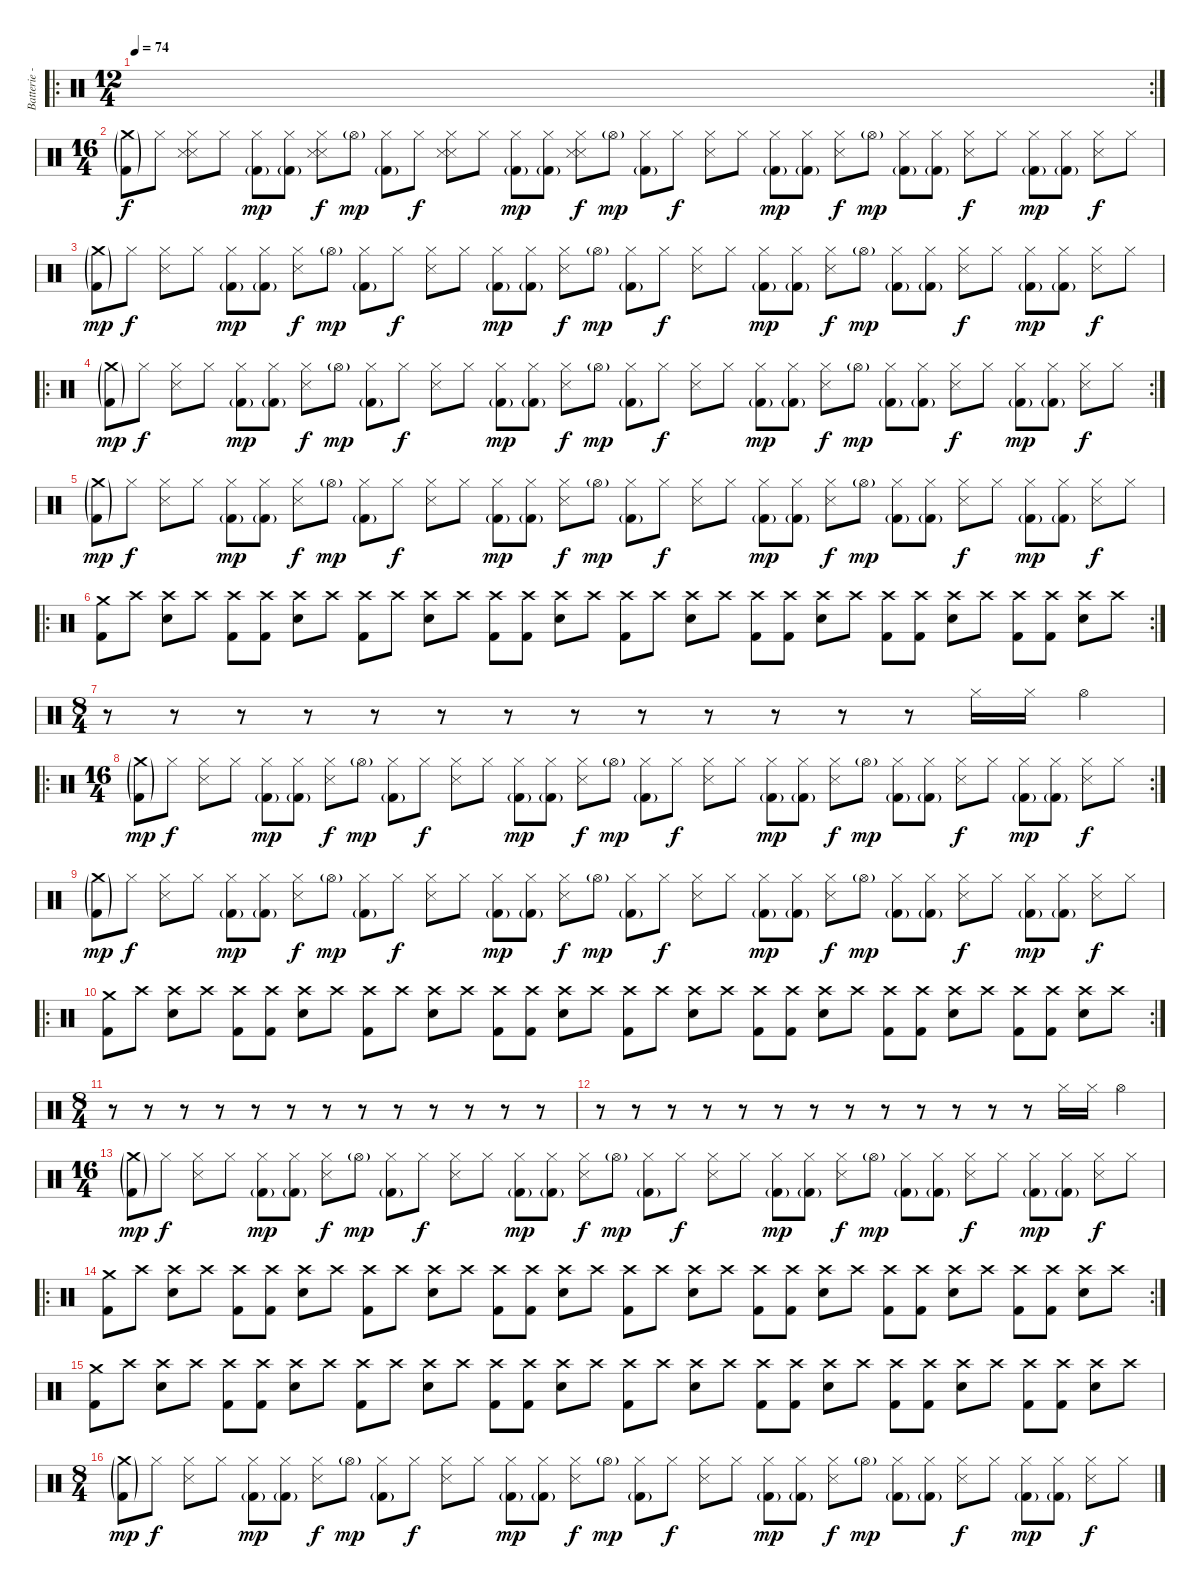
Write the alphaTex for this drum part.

\track ("Batterie - " "Batterie -") {instrument percussion}
\staff {score}
\articulation defaults
\ro
\rc 2
\ts (12 4)
\tempo 74
\clef neutral
\ks c
|
\ts (16 4)
("Kick (hit) 2"{g} "Crash medium (hit)"{g}).8 "Hi-Hat (closed)".8{dy f} ("Snare (side stick) 3" "Hi-Hat (closed)" "Snare (side stick) 3").8 "Hi-Hat (closed)".8 ("Kick (hit) 2"{g} "Hi-Hat (closed)").8{dy mp} ("Kick (hit) 2"{g} "Hi-Hat (closed)").8 ("Snare (side stick) 3" "Snare (side stick) 3" "Hi-Hat (closed)").8{dy f} "Hi-Hat (open)"{g}.8{dy mp} ("Kick (hit) 2"{g} "Hi-Hat (closed)").8 "Hi-Hat (closed)".8{dy f} ("Snare (side stick) 3" "Snare (side stick) 3" "Hi-Hat (closed)").8 "Hi-Hat (closed)".8 ("Kick (hit) 2"{g} "Hi-Hat (closed)").8{dy mp} ("Kick (hit) 2"{g} "Hi-Hat (closed)").8 ("Snare (side stick) 3" "Snare (side stick) 3" "Hi-Hat (closed)").8{dy f} "Hi-Hat (open)"{g}.8{dy mp} ("Kick (hit) 2"{g} "Hi-Hat (closed)").8 "Hi-Hat (closed)".8{dy f} ("Snare (side stick) 3" "Hi-Hat (closed)").8 "Hi-Hat (closed)".8 ("Kick (hit) 2"{g} "Hi-Hat (closed)").8{dy mp} ("Kick (hit) 2"{g} "Hi-Hat (closed)").8 ("Snare (side stick) 3" "Hi-Hat (closed)").8{dy f} "Hi-Hat (open)"{g}.8{dy mp} ("Kick (hit) 2"{g} "Hi-Hat (closed)").8 ("Kick (hit) 2"{g} "Hi-Hat (closed)").8 ("Snare (side stick) 3" "Hi-Hat (closed)").8{dy f} "Hi-Hat (closed)".8 ("Kick (hit) 2"{g} "Hi-Hat (closed)").8{dy mp} ("Kick (hit) 2"{g} "Hi-Hat (closed)").8 ("Snare (side stick) 3" "Hi-Hat (closed)").8{dy f} "Hi-Hat (closed)".8 |
("Kick (hit) 2"{g} "Crash medium (hit)"{g}).8{dy mp} "Hi-Hat (closed)".8{dy f} ("Hi-Hat (closed)" "Snare (side stick) 3").8 "Hi-Hat (closed)".8 ("Kick (hit) 2"{g} "Hi-Hat (closed)").8{dy mp} ("Kick (hit) 2"{g} "Hi-Hat (closed)").8 ("Snare (side stick) 3" "Hi-Hat (closed)").8{dy f} "Hi-Hat (open)"{g}.8{dy mp} ("Kick (hit) 2"{g} "Hi-Hat (closed)").8 "Hi-Hat (closed)".8{dy f} ("Snare (side stick) 3" "Hi-Hat (closed)").8 "Hi-Hat (closed)".8 ("Kick (hit) 2"{g} "Hi-Hat (closed)").8{dy mp} ("Kick (hit) 2"{g} "Hi-Hat (closed)").8 ("Snare (side stick) 3" "Hi-Hat (closed)").8{dy f} "Hi-Hat (open)"{g}.8{dy mp} ("Kick (hit) 2"{g} "Hi-Hat (closed)").8 "Hi-Hat (closed)".8{dy f} ("Snare (side stick) 3" "Hi-Hat (closed)").8 "Hi-Hat (closed)".8 ("Kick (hit) 2"{g} "Hi-Hat (closed)").8{dy mp} ("Kick (hit) 2"{g} "Hi-Hat (closed)").8 ("Snare (side stick) 3" "Hi-Hat (closed)").8{dy f} "Hi-Hat (open)"{g}.8{dy mp} ("Kick (hit) 2"{g} "Hi-Hat (closed)").8 ("Kick (hit) 2"{g} "Hi-Hat (closed)").8 ("Snare (side stick) 3" "Hi-Hat (closed)").8{dy f} "Hi-Hat (closed)".8 ("Kick (hit) 2"{g} "Hi-Hat (closed)").8{dy mp} ("Kick (hit) 2"{g} "Hi-Hat (closed)").8 ("Snare (side stick) 3" "Hi-Hat (closed)").8{dy f} "Hi-Hat (closed)".8 |
\ro
\rc 2
("Kick (hit) 2"{g} "Crash medium (hit)"{g}).8{dy mp} "Hi-Hat (closed)".8{dy f} ("Hi-Hat (closed)" "Snare (side stick) 3").8 "Hi-Hat (closed)".8 ("Kick (hit) 2"{g} "Hi-Hat (closed)").8{dy mp} ("Kick (hit) 2"{g} "Hi-Hat (closed)").8 ("Snare (side stick) 3" "Hi-Hat (closed)").8{dy f} "Hi-Hat (open)"{g}.8{dy mp} ("Kick (hit) 2"{g} "Hi-Hat (closed)").8 "Hi-Hat (closed)".8{dy f} ("Snare (side stick) 3" "Hi-Hat (closed)").8 "Hi-Hat (closed)".8 ("Kick (hit) 2"{g} "Hi-Hat (closed)").8{dy mp} ("Kick (hit) 2"{g} "Hi-Hat (closed)").8 ("Snare (side stick) 3" "Hi-Hat (closed)").8{dy f} "Hi-Hat (open)"{g}.8{dy mp} ("Kick (hit) 2"{g} "Hi-Hat (closed)").8 "Hi-Hat (closed)".8{dy f} ("Snare (side stick) 3" "Hi-Hat (closed)").8 "Hi-Hat (closed)".8 ("Kick (hit) 2"{g} "Hi-Hat (closed)").8{dy mp} ("Kick (hit) 2"{g} "Hi-Hat (closed)").8 ("Snare (side stick) 3" "Hi-Hat (closed)").8{dy f} "Hi-Hat (open)"{g}.8{dy mp} ("Kick (hit) 2"{g} "Hi-Hat (closed)").8 ("Kick (hit) 2"{g} "Hi-Hat (closed)").8 ("Snare (side stick) 3" "Hi-Hat (closed)").8{dy f} "Hi-Hat (closed)".8 ("Kick (hit) 2"{g} "Hi-Hat (closed)").8{dy mp} ("Kick (hit) 2"{g} "Hi-Hat (closed)").8 ("Snare (side stick) 3" "Hi-Hat (closed)").8{dy f} "Hi-Hat (closed)".8 |
("Kick (hit) 2"{g} "Crash medium (hit)"{g}).8{dy mp} "Hi-Hat (closed)".8{dy f} ("Hi-Hat (closed)" "Snare (side stick) 3").8 "Hi-Hat (closed)".8 ("Kick (hit) 2"{g} "Hi-Hat (closed)").8{dy mp} ("Kick (hit) 2"{g} "Hi-Hat (closed)").8 ("Snare (side stick) 3" "Hi-Hat (closed)").8{dy f} "Hi-Hat (open)"{g}.8{dy mp} ("Kick (hit) 2"{g} "Hi-Hat (closed)").8 "Hi-Hat (closed)".8{dy f} ("Snare (side stick) 3" "Hi-Hat (closed)").8 "Hi-Hat (closed)".8 ("Kick (hit) 2"{g} "Hi-Hat (closed)").8{dy mp} ("Kick (hit) 2"{g} "Hi-Hat (closed)").8 ("Snare (side stick) 3" "Hi-Hat (closed)").8{dy f} "Hi-Hat (open)"{g}.8{dy mp} ("Kick (hit) 2"{g} "Hi-Hat (closed)").8 "Hi-Hat (closed)".8{dy f} ("Snare (side stick) 3" "Hi-Hat (closed)").8 "Hi-Hat (closed)".8 ("Kick (hit) 2"{g} "Hi-Hat (closed)").8{dy mp} ("Kick (hit) 2"{g} "Hi-Hat (closed)").8 ("Snare (side stick) 3" "Hi-Hat (closed)").8{dy f} "Hi-Hat (open)"{g}.8{dy mp} ("Kick (hit) 2"{g} "Hi-Hat (closed)").8 ("Kick (hit) 2"{g} "Hi-Hat (closed)").8 ("Snare (side stick) 3" "Hi-Hat (closed)").8{dy f} "Hi-Hat (closed)".8 ("Kick (hit) 2"{g} "Hi-Hat (closed)").8{dy mp} ("Kick (hit) 2"{g} "Hi-Hat (closed)").8 ("Snare (side stick) 3" "Hi-Hat (closed)").8{dy f} "Hi-Hat (closed)".8 |
\ro
\rc 2
("Kick (hit) 2" "Crash medium (hit)").8 "Crash high (hit)".8 ("Crash high (hit)" "Electric Snare (hit)").8 "Crash high (hit)".8 ("Kick (hit) 2" "Crash high (hit)").8 ("Kick (hit) 2" "Crash high (hit)").8 ("Electric Snare (hit)" "Crash high (hit)").8 "Crash high (hit)".8 ("Kick (hit) 2" "Crash high (hit)").8 "Crash high (hit)".8 ("Electric Snare (hit)" "Crash high (hit)").8 "Crash high (hit)".8 ("Kick (hit) 2" "Crash high (hit)").8 ("Kick (hit) 2" "Crash high (hit)").8 ("Electric Snare (hit)" "Crash high (hit)").8 "Crash high (hit)".8 ("Kick (hit) 2" "Crash high (hit)").8 "Crash high (hit)".8 ("Electric Snare (hit)" "Crash high (hit)").8 "Crash high (hit)".8 ("Kick (hit) 2" "Crash high (hit)").8 ("Kick (hit) 2" "Crash high (hit)").8 ("Electric Snare (hit)" "Crash high (hit)").8 "Crash high (hit)".8 ("Kick (hit) 2" "Crash high (hit)").8 ("Kick (hit) 2" "Crash high (hit)").8 ("Electric Snare (hit)" "Crash high (hit)").8 "Crash high (hit)".8 ("Kick (hit) 2" "Crash high (hit)").8 ("Kick (hit) 2" "Crash high (hit)").8 ("Electric Snare (hit)" "Crash high (hit)").8 "Crash high (hit)".8 |
\ts (8 4)
r.8 r.8 r.8 r.8 r.8 r.8 r.8 r.8 r.8 r.8 r.8 r.8 r.8 "Hi-Hat (closed)".16 "Hi-Hat (closed)".16 "Hi-Hat (open)".4 |
\ro
\rc 2
\ts (16 4)
("Kick (hit) 2"{g} "Crash medium (hit)"{g}).8{dy mp} "Hi-Hat (closed)".8{dy f} ("Hi-Hat (closed)" "Snare (side stick) 3").8 "Hi-Hat (closed)".8 ("Kick (hit) 2"{g} "Hi-Hat (closed)").8{dy mp} ("Kick (hit) 2"{g} "Hi-Hat (closed)").8 ("Snare (side stick) 3" "Hi-Hat (closed)").8{dy f} "Hi-Hat (open)"{g}.8{dy mp} ("Kick (hit) 2"{g} "Hi-Hat (closed)").8 "Hi-Hat (closed)".8{dy f} ("Snare (side stick) 3" "Hi-Hat (closed)").8 "Hi-Hat (closed)".8 ("Kick (hit) 2"{g} "Hi-Hat (closed)").8{dy mp} ("Kick (hit) 2"{g} "Hi-Hat (closed)").8 ("Snare (side stick) 3" "Hi-Hat (closed)").8{dy f} "Hi-Hat (open)"{g}.8{dy mp} ("Kick (hit) 2"{g} "Hi-Hat (closed)").8 "Hi-Hat (closed)".8{dy f} ("Snare (side stick) 3" "Hi-Hat (closed)").8 "Hi-Hat (closed)".8 ("Kick (hit) 2"{g} "Hi-Hat (closed)").8{dy mp} ("Kick (hit) 2"{g} "Hi-Hat (closed)").8 ("Snare (side stick) 3" "Hi-Hat (closed)").8{dy f} "Hi-Hat (open)"{g}.8{dy mp} ("Kick (hit) 2"{g} "Hi-Hat (closed)").8 ("Kick (hit) 2"{g} "Hi-Hat (closed)").8 ("Snare (side stick) 3" "Hi-Hat (closed)").8{dy f} "Hi-Hat (closed)".8 ("Kick (hit) 2"{g} "Hi-Hat (closed)").8{dy mp} ("Kick (hit) 2"{g} "Hi-Hat (closed)").8 ("Snare (side stick) 3" "Hi-Hat (closed)").8{dy f} "Hi-Hat (closed)".8 |
("Kick (hit) 2"{g} "Crash medium (hit)"{g}).8{dy mp} "Hi-Hat (closed)".8{dy f} ("Hi-Hat (closed)" "Snare (side stick) 3").8 "Hi-Hat (closed)".8 ("Kick (hit) 2"{g} "Hi-Hat (closed)").8{dy mp} ("Kick (hit) 2"{g} "Hi-Hat (closed)").8 ("Snare (side stick) 3" "Hi-Hat (closed)").8{dy f} "Hi-Hat (open)"{g}.8{dy mp} ("Kick (hit) 2"{g} "Hi-Hat (closed)").8 "Hi-Hat (closed)".8{dy f} ("Snare (side stick) 3" "Hi-Hat (closed)").8 "Hi-Hat (closed)".8 ("Kick (hit) 2"{g} "Hi-Hat (closed)").8{dy mp} ("Kick (hit) 2"{g} "Hi-Hat (closed)").8 ("Snare (side stick) 3" "Hi-Hat (closed)").8{dy f} "Hi-Hat (open)"{g}.8{dy mp} ("Kick (hit) 2"{g} "Hi-Hat (closed)").8 "Hi-Hat (closed)".8{dy f} ("Snare (side stick) 3" "Hi-Hat (closed)").8 "Hi-Hat (closed)".8 ("Kick (hit) 2"{g} "Hi-Hat (closed)").8{dy mp} ("Kick (hit) 2"{g} "Hi-Hat (closed)").8 ("Snare (side stick) 3" "Hi-Hat (closed)").8{dy f} "Hi-Hat (open)"{g}.8{dy mp} ("Kick (hit) 2"{g} "Hi-Hat (closed)").8 ("Kick (hit) 2"{g} "Hi-Hat (closed)").8 ("Snare (side stick) 3" "Hi-Hat (closed)").8{dy f} "Hi-Hat (closed)".8 ("Kick (hit) 2"{g} "Hi-Hat (closed)").8{dy mp} ("Kick (hit) 2"{g} "Hi-Hat (closed)").8 ("Snare (side stick) 3" "Hi-Hat (closed)").8{dy f} "Hi-Hat (closed)".8 |
\ro
\rc 2
("Kick (hit) 2" "Crash medium (hit)").8 "Crash high (hit)".8 ("Crash high (hit)" "Electric Snare (hit)").8 "Crash high (hit)".8 ("Kick (hit) 2" "Crash high (hit)").8 ("Kick (hit) 2" "Crash high (hit)").8 ("Electric Snare (hit)" "Crash high (hit)").8 "Crash high (hit)".8 ("Kick (hit) 2" "Crash high (hit)").8 "Crash high (hit)".8 ("Electric Snare (hit)" "Crash high (hit)").8 "Crash high (hit)".8 ("Kick (hit) 2" "Crash high (hit)").8 ("Kick (hit) 2" "Crash high (hit)").8 ("Electric Snare (hit)" "Crash high (hit)").8 "Crash high (hit)".8 ("Kick (hit) 2" "Crash high (hit)").8 "Crash high (hit)".8 ("Electric Snare (hit)" "Crash high (hit)").8 "Crash high (hit)".8 ("Kick (hit) 2" "Crash high (hit)").8 ("Kick (hit) 2" "Crash high (hit)").8 ("Electric Snare (hit)" "Crash high (hit)").8 "Crash high (hit)".8 ("Kick (hit) 2" "Crash high (hit)").8 ("Kick (hit) 2" "Crash high (hit)").8 ("Electric Snare (hit)" "Crash high (hit)").8 "Crash high (hit)".8 ("Kick (hit) 2" "Crash high (hit)").8 ("Kick (hit) 2" "Crash high (hit)").8 ("Electric Snare (hit)" "Crash high (hit)").8 "Crash high (hit)".8 |
\ts (8 4)
r.8 r.8 r.8 r.8 r.8 r.8 r.8 r.8 r.8 r.8 r.8 r.8 r.8 |
r.8 r.8 r.8 r.8 r.8 r.8 r.8 r.8 r.8 r.8 r.8 r.8 r.8 "Hi-Hat (closed)".16 "Hi-Hat (closed)".16 "Hi-Hat (open)".4 |
\ts (16 4)
("Kick (hit) 2"{g} "Crash medium (hit)"{g}).8{dy mp} "Hi-Hat (closed)".8{dy f} ("Hi-Hat (closed)" "Snare (side stick) 3").8 "Hi-Hat (closed)".8 ("Kick (hit) 2"{g} "Hi-Hat (closed)").8{dy mp} ("Kick (hit) 2"{g} "Hi-Hat (closed)").8 ("Snare (side stick) 3" "Hi-Hat (closed)").8{dy f} "Hi-Hat (open)"{g}.8{dy mp} ("Kick (hit) 2"{g} "Hi-Hat (closed)").8 "Hi-Hat (closed)".8{dy f} ("Snare (side stick) 3" "Hi-Hat (closed)").8 "Hi-Hat (closed)".8 ("Kick (hit) 2"{g} "Hi-Hat (closed)").8{dy mp} ("Kick (hit) 2"{g} "Hi-Hat (closed)").8 ("Snare (side stick) 3" "Hi-Hat (closed)").8{dy f} "Hi-Hat (open)"{g}.8{dy mp} ("Kick (hit) 2"{g} "Hi-Hat (closed)").8 "Hi-Hat (closed)".8{dy f} ("Snare (side stick) 3" "Hi-Hat (closed)").8 "Hi-Hat (closed)".8 ("Kick (hit) 2"{g} "Hi-Hat (closed)").8{dy mp} ("Kick (hit) 2"{g} "Hi-Hat (closed)").8 ("Snare (side stick) 3" "Hi-Hat (closed)").8{dy f} "Hi-Hat (open)"{g}.8{dy mp} ("Kick (hit) 2"{g} "Hi-Hat (closed)").8 ("Kick (hit) 2"{g} "Hi-Hat (closed)").8 ("Snare (side stick) 3" "Hi-Hat (closed)").8{dy f} "Hi-Hat (closed)".8 ("Kick (hit) 2"{g} "Hi-Hat (closed)").8{dy mp} ("Kick (hit) 2"{g} "Hi-Hat (closed)").8 ("Snare (side stick) 3" "Hi-Hat (closed)").8{dy f} "Hi-Hat (closed)".8 |
\ro
\rc 2
("Kick (hit) 2" "Crash medium (hit)").8 "Crash high (hit)".8 ("Crash high (hit)" "Electric Snare (hit)").8 "Crash high (hit)".8 ("Kick (hit) 2" "Crash high (hit)").8 ("Kick (hit) 2" "Crash high (hit)").8 ("Electric Snare (hit)" "Crash high (hit)").8 "Crash high (hit)".8 ("Kick (hit) 2" "Crash high (hit)").8 "Crash high (hit)".8 ("Electric Snare (hit)" "Crash high (hit)").8 "Crash high (hit)".8 ("Kick (hit) 2" "Crash high (hit)").8 ("Kick (hit) 2" "Crash high (hit)").8 ("Electric Snare (hit)" "Crash high (hit)").8 "Crash high (hit)".8 ("Kick (hit) 2" "Crash high (hit)").8 "Crash high (hit)".8 ("Electric Snare (hit)" "Crash high (hit)").8 "Crash high (hit)".8 ("Kick (hit) 2" "Crash high (hit)").8 ("Kick (hit) 2" "Crash high (hit)").8 ("Electric Snare (hit)" "Crash high (hit)").8 "Crash high (hit)".8 ("Kick (hit) 2" "Crash high (hit)").8 ("Kick (hit) 2" "Crash high (hit)").8 ("Electric Snare (hit)" "Crash high (hit)").8 "Crash high (hit)".8 ("Kick (hit) 2" "Crash high (hit)").8 ("Kick (hit) 2" "Crash high (hit)").8 ("Electric Snare (hit)" "Crash high (hit)").8 "Crash high (hit)".8 |
("Kick (hit) 2" "Crash medium (hit)").8 "Crash high (hit)".8 ("Crash high (hit)" "Electric Snare (hit)").8 "Crash high (hit)".8 ("Kick (hit) 2" "Crash high (hit)").8 ("Kick (hit) 2" "Crash high (hit)").8 ("Electric Snare (hit)" "Crash high (hit)").8 "Crash high (hit)".8 ("Kick (hit) 2" "Crash high (hit)").8 "Crash high (hit)".8 ("Electric Snare (hit)" "Crash high (hit)").8 "Crash high (hit)".8 ("Kick (hit) 2" "Crash high (hit)").8 ("Kick (hit) 2" "Crash high (hit)").8 ("Electric Snare (hit)" "Crash high (hit)").8 "Crash high (hit)".8 ("Kick (hit) 2" "Crash high (hit)").8 "Crash high (hit)".8 ("Electric Snare (hit)" "Crash high (hit)").8 "Crash high (hit)".8 ("Kick (hit) 2" "Crash high (hit)").8 ("Kick (hit) 2" "Crash high (hit)").8 ("Electric Snare (hit)" "Crash high (hit)").8 "Crash high (hit)".8 ("Kick (hit) 2" "Crash high (hit)").8 ("Kick (hit) 2" "Crash high (hit)").8 ("Electric Snare (hit)" "Crash high (hit)").8 "Crash high (hit)".8 ("Kick (hit) 2" "Crash high (hit)").8 ("Kick (hit) 2" "Crash high (hit)").8 ("Electric Snare (hit)" "Crash high (hit)").8 "Crash high (hit)".8 |
\ts (8 4)
("Kick (hit) 2"{g} "Crash medium (hit)"{g}).8{dy mp} "Hi-Hat (closed)".8{dy f} ("Hi-Hat (closed)" "Snare (side stick) 3").8 "Hi-Hat (closed)".8 ("Kick (hit) 2"{g} "Hi-Hat (closed)").8{dy mp} ("Kick (hit) 2"{g} "Hi-Hat (closed)").8 ("Snare (side stick) 3" "Hi-Hat (closed)").8{dy f} "Hi-Hat (open)"{g}.8{dy mp} ("Kick (hit) 2"{g} "Hi-Hat (closed)").8 "Hi-Hat (closed)".8{dy f} ("Snare (side stick) 3" "Hi-Hat (closed)").8 "Hi-Hat (closed)".8 ("Kick (hit) 2"{g} "Hi-Hat (closed)").8{dy mp} ("Kick (hit) 2"{g} "Hi-Hat (closed)").8 ("Snare (side stick) 3" "Hi-Hat (closed)").8{dy f} "Hi-Hat (open)"{g}.8{dy mp} ("Kick (hit) 2"{g} "Hi-Hat (closed)").8 "Hi-Hat (closed)".8{dy f} ("Snare (side stick) 3" "Hi-Hat (closed)").8 "Hi-Hat (closed)".8 ("Kick (hit) 2"{g} "Hi-Hat (closed)").8{dy mp} ("Kick (hit) 2"{g} "Hi-Hat (closed)").8 ("Snare (side stick) 3" "Hi-Hat (closed)").8{dy f} "Hi-Hat (open)"{g}.8{dy mp} ("Kick (hit) 2"{g} "Hi-Hat (closed)").8 ("Kick (hit) 2"{g} "Hi-Hat (closed)").8 ("Snare (side stick) 3" "Hi-Hat (closed)").8{dy f} "Hi-Hat (closed)".8 ("Kick (hit) 2"{g} "Hi-Hat (closed)").8{dy mp} ("Kick (hit) 2"{g} "Hi-Hat (closed)").8 ("Snare (side stick) 3" "Hi-Hat (closed)").8{dy f} "Hi-Hat (closed)".8
